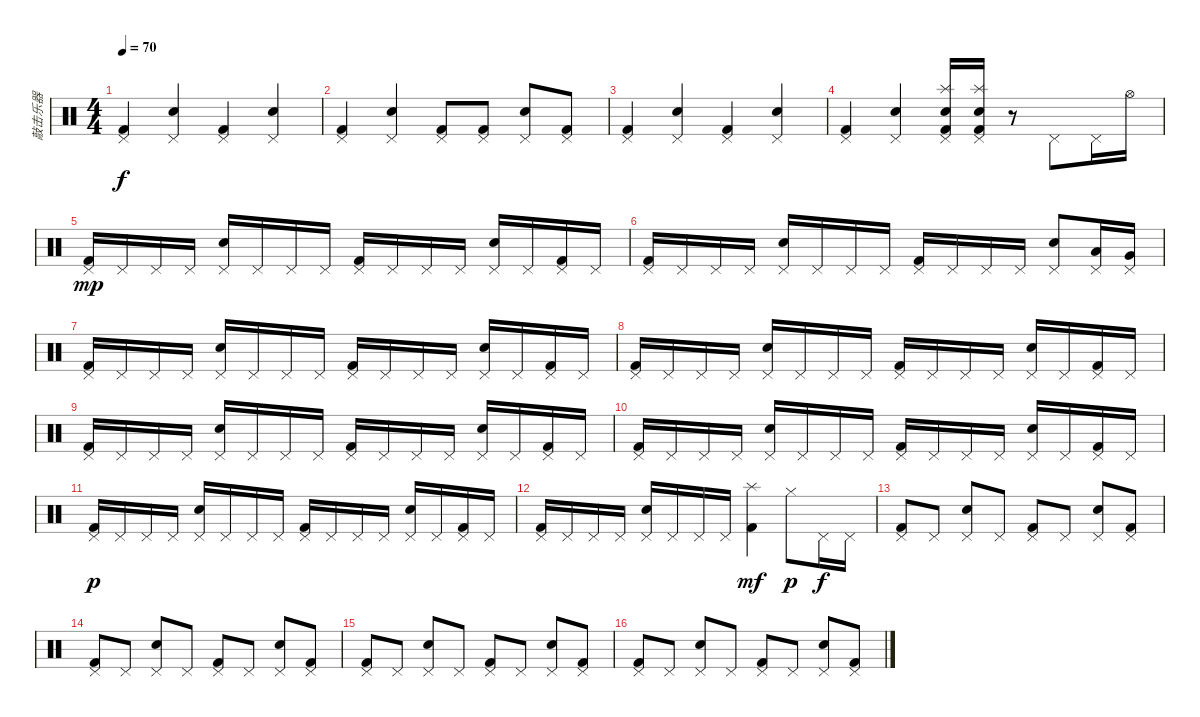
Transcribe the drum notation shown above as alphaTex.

\track ("敲击乐器" "敲击乐器") {instrument percussion}
\staff {score}
\articulation defaults
\ts (4 4)
\tempo 70
\clef neutral
\ks c
("Pedal Hi-Hat (hit)" "Kick (hit) 2").4{dy f} ("Pedal Hi-Hat (hit)" "Electric Snare (hit)").4 ("Pedal Hi-Hat (hit)" "Kick (hit) 2").4 ("Pedal Hi-Hat (hit)" "Electric Snare (hit)").4 |
("Pedal Hi-Hat (hit)" "Kick (hit) 2").4 ("Pedal Hi-Hat (hit)" "Electric Snare (hit)").4 ("Pedal Hi-Hat (hit)" "Kick (hit) 2").8 ("Pedal Hi-Hat (hit)" "Kick (hit) 2").8 ("Pedal Hi-Hat (hit)" "Electric Snare (hit)").8 ("Pedal Hi-Hat (hit)" "Kick (hit) 2").8 |
("Pedal Hi-Hat (hit)" "Kick (hit) 2").4 ("Pedal Hi-Hat (hit)" "Electric Snare (hit)").4 ("Pedal Hi-Hat (hit)" "Kick (hit) 2").4 ("Pedal Hi-Hat (hit)" "Electric Snare (hit)").4 |
("Pedal Hi-Hat (hit)" "Kick (hit) 2").4 ("Pedal Hi-Hat (hit)" "Electric Snare (hit)").4 ("Pedal Hi-Hat (hit)" "Splash (hit)" "Snare (hit) 2" "Kick (hit) 2").16 ("Pedal Hi-Hat (hit)" "Splash (hit)" "Snare (hit) 2" "Kick (hit) 2").16 r.8 "Pedal Hi-Hat (hit)".8 "Pedal Hi-Hat (hit)".16 "Hi-Hat (open)".16 |
("Pedal Hi-Hat (hit)" "Kick (hit) 2").16{dy mp} "Pedal Hi-Hat (hit)".16 "Pedal Hi-Hat (hit)".16 "Pedal Hi-Hat (hit)".16 ("Pedal Hi-Hat (hit)" "Electric Snare (hit)").16 "Pedal Hi-Hat (hit)".16 "Pedal Hi-Hat (hit)".16 "Pedal Hi-Hat (hit)".16 ("Pedal Hi-Hat (hit)" "Kick (hit) 2").16 "Pedal Hi-Hat (hit)".16 "Pedal Hi-Hat (hit)".16 "Pedal Hi-Hat (hit)".16 ("Pedal Hi-Hat (hit)" "Electric Snare (hit)").16 "Pedal Hi-Hat (hit)".16 ("Pedal Hi-Hat (hit)" "Kick (hit) 2").16 "Pedal Hi-Hat (hit)".16 |
("Pedal Hi-Hat (hit)" "Kick (hit) 2").16 "Pedal Hi-Hat (hit)".16 "Pedal Hi-Hat (hit)".16 "Pedal Hi-Hat (hit)".16 ("Pedal Hi-Hat (hit)" "Electric Snare (hit)").16 "Pedal Hi-Hat (hit)".16 "Pedal Hi-Hat (hit)".16 "Pedal Hi-Hat (hit)".16 ("Pedal Hi-Hat (hit)" "Kick (hit) 2").16 "Pedal Hi-Hat (hit)".16 "Pedal Hi-Hat (hit)".16 "Pedal Hi-Hat (hit)".16 ("Pedal Hi-Hat (hit)" "Electric Snare (hit)").8 ("Pedal Hi-Hat (hit)" "Low Tom (hit)").16 ("Pedal Hi-Hat (hit)" "Very Low Tom (hit)").16 |
("Pedal Hi-Hat (hit)" "Kick (hit) 2").16 "Pedal Hi-Hat (hit)".16 "Pedal Hi-Hat (hit)".16 "Pedal Hi-Hat (hit)".16 ("Pedal Hi-Hat (hit)" "Electric Snare (hit)").16 "Pedal Hi-Hat (hit)".16 "Pedal Hi-Hat (hit)".16 "Pedal Hi-Hat (hit)".16 ("Pedal Hi-Hat (hit)" "Kick (hit) 2").16 "Pedal Hi-Hat (hit)".16 "Pedal Hi-Hat (hit)".16 "Pedal Hi-Hat (hit)".16 ("Pedal Hi-Hat (hit)" "Electric Snare (hit)").16 "Pedal Hi-Hat (hit)".16 ("Pedal Hi-Hat (hit)" "Kick (hit) 2").16 "Pedal Hi-Hat (hit)".16 |
("Pedal Hi-Hat (hit)" "Kick (hit) 2").16 "Pedal Hi-Hat (hit)".16 "Pedal Hi-Hat (hit)".16 "Pedal Hi-Hat (hit)".16 ("Pedal Hi-Hat (hit)" "Electric Snare (hit)").16 "Pedal Hi-Hat (hit)".16 "Pedal Hi-Hat (hit)".16 "Pedal Hi-Hat (hit)".16 ("Pedal Hi-Hat (hit)" "Kick (hit) 2").16 "Pedal Hi-Hat (hit)".16 "Pedal Hi-Hat (hit)".16 "Pedal Hi-Hat (hit)".16 ("Pedal Hi-Hat (hit)" "Electric Snare (hit)").16 "Pedal Hi-Hat (hit)".16 ("Pedal Hi-Hat (hit)" "Kick (hit) 2").16 "Pedal Hi-Hat (hit)".16 |
("Pedal Hi-Hat (hit)" "Kick (hit) 2").16 "Pedal Hi-Hat (hit)".16 "Pedal Hi-Hat (hit)".16 "Pedal Hi-Hat (hit)".16 ("Pedal Hi-Hat (hit)" "Electric Snare (hit)").16 "Pedal Hi-Hat (hit)".16 "Pedal Hi-Hat (hit)".16 "Pedal Hi-Hat (hit)".16 ("Pedal Hi-Hat (hit)" "Kick (hit) 2").16 "Pedal Hi-Hat (hit)".16 "Pedal Hi-Hat (hit)".16 "Pedal Hi-Hat (hit)".16 ("Pedal Hi-Hat (hit)" "Electric Snare (hit)").16 "Pedal Hi-Hat (hit)".16 ("Pedal Hi-Hat (hit)" "Kick (hit) 2").16 "Pedal Hi-Hat (hit)".16 |
("Pedal Hi-Hat (hit)" "Kick (hit) 2").16 "Pedal Hi-Hat (hit)".16 "Pedal Hi-Hat (hit)".16 "Pedal Hi-Hat (hit)".16 ("Pedal Hi-Hat (hit)" "Electric Snare (hit)").16 "Pedal Hi-Hat (hit)".16 "Pedal Hi-Hat (hit)".16 "Pedal Hi-Hat (hit)".16 ("Pedal Hi-Hat (hit)" "Kick (hit) 2").16 "Pedal Hi-Hat (hit)".16 "Pedal Hi-Hat (hit)".16 "Pedal Hi-Hat (hit)".16 ("Pedal Hi-Hat (hit)" "Electric Snare (hit)").16 "Pedal Hi-Hat (hit)".16 ("Pedal Hi-Hat (hit)" "Kick (hit) 2").16 "Pedal Hi-Hat (hit)".16 |
("Pedal Hi-Hat (hit)" "Kick (hit) 2").16{dy p} "Pedal Hi-Hat (hit)".16 "Pedal Hi-Hat (hit)".16 "Pedal Hi-Hat (hit)".16 ("Pedal Hi-Hat (hit)" "Electric Snare (hit)").16 "Pedal Hi-Hat (hit)".16 "Pedal Hi-Hat (hit)".16 "Pedal Hi-Hat (hit)".16 ("Pedal Hi-Hat (hit)" "Kick (hit) 2").16 "Pedal Hi-Hat (hit)".16 "Pedal Hi-Hat (hit)".16 "Pedal Hi-Hat (hit)".16 ("Pedal Hi-Hat (hit)" "Electric Snare (hit)").16 "Pedal Hi-Hat (hit)".16 ("Pedal Hi-Hat (hit)" "Kick (hit) 2").16 "Pedal Hi-Hat (hit)".16 |
("Pedal Hi-Hat (hit)" "Kick (hit) 2").16 "Pedal Hi-Hat (hit)".16 "Pedal Hi-Hat (hit)".16 "Pedal Hi-Hat (hit)".16 ("Pedal Hi-Hat (hit)" "Electric Snare (hit)").16 "Pedal Hi-Hat (hit)".16 "Pedal Hi-Hat (hit)".16 "Pedal Hi-Hat (hit)".16 ("Splash (hit)" "Kick (hit) 2").4{dy mf} "Hi-Hat (closed)".8{dy p} "Pedal Hi-Hat (hit)".16{dy f} "Pedal Hi-Hat (hit)".16 |
("Pedal Hi-Hat (hit)" "Kick (hit) 2").8 "Pedal Hi-Hat (hit)".8 ("Pedal Hi-Hat (hit)" "Snare (hit) 2").8 "Pedal Hi-Hat (hit)".8 ("Pedal Hi-Hat (hit)" "Kick (hit) 2").8 "Pedal Hi-Hat (hit)".8 ("Pedal Hi-Hat (hit)" "Snare (hit) 2").8 ("Pedal Hi-Hat (hit)" "Kick (hit) 2").8 |
("Pedal Hi-Hat (hit)" "Kick (hit) 2").8 "Pedal Hi-Hat (hit)".8 ("Pedal Hi-Hat (hit)" "Snare (hit) 2").8 "Pedal Hi-Hat (hit)".8 ("Pedal Hi-Hat (hit)" "Kick (hit) 2").8 "Pedal Hi-Hat (hit)".8 ("Pedal Hi-Hat (hit)" "Snare (hit) 2").8 ("Pedal Hi-Hat (hit)" "Kick (hit) 2").8 |
("Pedal Hi-Hat (hit)" "Kick (hit) 2").8 "Pedal Hi-Hat (hit)".8 ("Pedal Hi-Hat (hit)" "Snare (hit) 2").8 "Pedal Hi-Hat (hit)".8 ("Pedal Hi-Hat (hit)" "Kick (hit) 2").8 "Pedal Hi-Hat (hit)".8 ("Pedal Hi-Hat (hit)" "Snare (hit) 2").8 ("Pedal Hi-Hat (hit)" "Kick (hit) 2").8 |
("Pedal Hi-Hat (hit)" "Kick (hit) 2").8 "Pedal Hi-Hat (hit)".8 ("Pedal Hi-Hat (hit)" "Snare (hit) 2").8 "Pedal Hi-Hat (hit)".8 ("Pedal Hi-Hat (hit)" "Kick (hit) 2").8 "Pedal Hi-Hat (hit)".8 ("Pedal Hi-Hat (hit)" "Snare (hit) 2").8 ("Pedal Hi-Hat (hit)" "Kick (hit) 2").8
